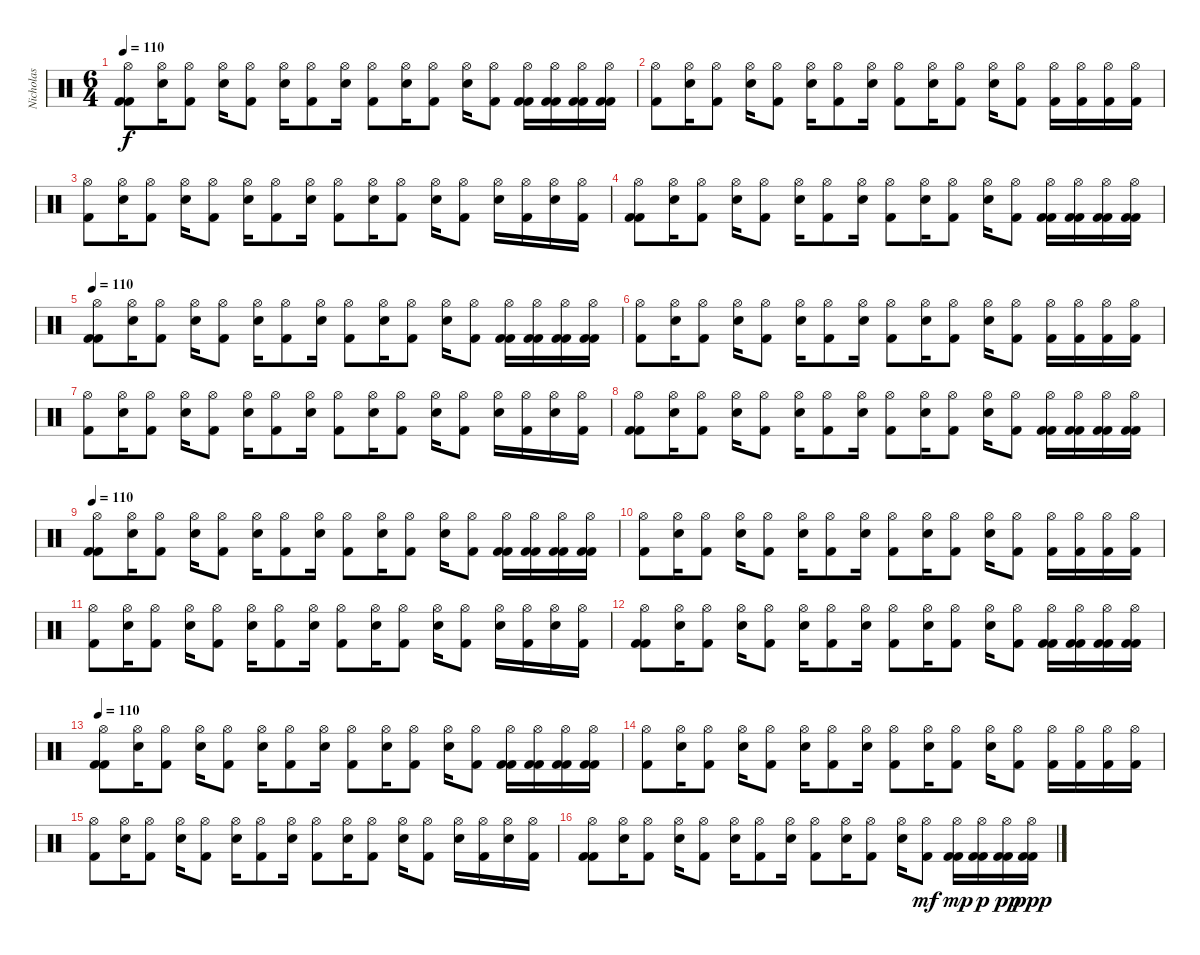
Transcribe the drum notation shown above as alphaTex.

\track ("Nicholas" "Nicholas") {instrument percussion}
\staff {score}
\articulation defaults
\ts (6 4)
\tempo 110
\clef neutral
\ks c
("Hi-Hat (open)" "Kick (hit) 2" "Kick (hit) 2").8{dy f} ("Hi-Hat (open)" "Snare (hit) 2").16 ("Hi-Hat (open)" "Kick (hit) 2").8 ("Hi-Hat (open)" "Snare (hit) 2").16 ("Hi-Hat (open)" "Kick (hit) 2").8 ("Hi-Hat (open)" "Snare (hit) 2").16 ("Hi-Hat (open)" "Kick (hit) 2").8 ("Hi-Hat (open)" "Snare (hit) 2").16 ("Hi-Hat (open)" "Kick (hit) 2").8 ("Hi-Hat (open)" "Snare (hit) 2").16 ("Hi-Hat (open)" "Kick (hit) 2").8 ("Hi-Hat (open)" "Snare (hit) 2").16 ("Hi-Hat (open)" "Kick (hit) 2").8 ("Hi-Hat (open)" "Kick (hit) 2" "Kick (hit) 2").16 ("Hi-Hat (open)" "Kick (hit) 2" "Kick (hit) 2").16 ("Hi-Hat (open)" "Kick (hit) 2" "Kick (hit) 2").16 ("Hi-Hat (open)" "Kick (hit) 2" "Kick (hit) 2").16 |
("Hi-Hat (open)" "Kick (hit) 2").8 ("Hi-Hat (open)" "Snare (hit) 2").16 ("Hi-Hat (open)" "Kick (hit) 2").8 ("Hi-Hat (open)" "Snare (hit) 2").16 ("Hi-Hat (open)" "Kick (hit) 2").8 ("Hi-Hat (open)" "Snare (hit) 2").16 ("Hi-Hat (open)" "Kick (hit) 2").8 ("Hi-Hat (open)" "Snare (hit) 2").16 ("Hi-Hat (open)" "Kick (hit) 2").8 ("Hi-Hat (open)" "Snare (hit) 2").16 ("Hi-Hat (open)" "Kick (hit) 2").8 ("Hi-Hat (open)" "Snare (hit) 2").16 ("Hi-Hat (open)" "Kick (hit) 2").8 ("Hi-Hat (open)" "Kick (hit) 2").16 ("Hi-Hat (open)" "Kick (hit) 2").16 ("Hi-Hat (open)" "Kick (hit) 2").16 ("Hi-Hat (open)" "Kick (hit) 2").16 |
("Hi-Hat (open)" "Kick (hit) 2").8 ("Hi-Hat (open)" "Snare (hit) 2").16 ("Hi-Hat (open)" "Kick (hit) 2").8 ("Hi-Hat (open)" "Snare (hit) 2").16 ("Hi-Hat (open)" "Kick (hit) 2").8 ("Hi-Hat (open)" "Snare (hit) 2").16 ("Hi-Hat (open)" "Kick (hit) 2").8 ("Hi-Hat (open)" "Snare (hit) 2").16 ("Hi-Hat (open)" "Kick (hit) 2").8 ("Hi-Hat (open)" "Snare (hit) 2").16 ("Hi-Hat (open)" "Kick (hit) 2").8 ("Hi-Hat (open)" "Snare (hit) 2").16 ("Hi-Hat (open)" "Kick (hit) 2").8 ("Hi-Hat (open)" "Snare (hit) 2").16 ("Hi-Hat (open)" "Kick (hit) 2").16 ("Hi-Hat (open)" "Snare (hit) 2").16 ("Hi-Hat (open)" "Kick (hit) 2").16 |
("Hi-Hat (open)" "Kick (hit) 2" "Kick (hit) 2").8 ("Hi-Hat (open)" "Snare (hit) 2").16 ("Hi-Hat (open)" "Kick (hit) 2").8 ("Hi-Hat (open)" "Snare (hit) 2").16 ("Hi-Hat (open)" "Kick (hit) 2").8 ("Hi-Hat (open)" "Snare (hit) 2").16 ("Hi-Hat (open)" "Kick (hit) 2").8 ("Hi-Hat (open)" "Snare (hit) 2").16 ("Hi-Hat (open)" "Kick (hit) 2").8 ("Hi-Hat (open)" "Snare (hit) 2").16 ("Hi-Hat (open)" "Kick (hit) 2").8 ("Hi-Hat (open)" "Snare (hit) 2").16 ("Hi-Hat (open)" "Kick (hit) 2").8 ("Hi-Hat (open)" "Kick (hit) 2" "Kick (hit) 2").16 ("Hi-Hat (open)" "Kick (hit) 2" "Kick (hit) 2").16 ("Hi-Hat (open)" "Kick (hit) 2" "Kick (hit) 2").16 ("Hi-Hat (open)" "Kick (hit) 2" "Kick (hit) 2").16 |
\tempo 110
("Hi-Hat (open)" "Kick (hit) 2" "Kick (hit) 2").8 ("Hi-Hat (open)" "Snare (hit) 2").16 ("Hi-Hat (open)" "Kick (hit) 2").8 ("Hi-Hat (open)" "Snare (hit) 2").16 ("Hi-Hat (open)" "Kick (hit) 2").8 ("Hi-Hat (open)" "Snare (hit) 2").16 ("Hi-Hat (open)" "Kick (hit) 2").8 ("Hi-Hat (open)" "Snare (hit) 2").16 ("Hi-Hat (open)" "Kick (hit) 2").8 ("Hi-Hat (open)" "Snare (hit) 2").16 ("Hi-Hat (open)" "Kick (hit) 2").8 ("Hi-Hat (open)" "Snare (hit) 2").16 ("Hi-Hat (open)" "Kick (hit) 2").8 ("Hi-Hat (open)" "Kick (hit) 2" "Kick (hit) 2").16 ("Hi-Hat (open)" "Kick (hit) 2" "Kick (hit) 2").16 ("Hi-Hat (open)" "Kick (hit) 2" "Kick (hit) 2").16 ("Hi-Hat (open)" "Kick (hit) 2" "Kick (hit) 2").16 |
("Hi-Hat (open)" "Kick (hit) 2").8 ("Hi-Hat (open)" "Snare (hit) 2").16 ("Hi-Hat (open)" "Kick (hit) 2").8 ("Hi-Hat (open)" "Snare (hit) 2").16 ("Hi-Hat (open)" "Kick (hit) 2").8 ("Hi-Hat (open)" "Snare (hit) 2").16 ("Hi-Hat (open)" "Kick (hit) 2").8 ("Hi-Hat (open)" "Snare (hit) 2").16 ("Hi-Hat (open)" "Kick (hit) 2").8 ("Hi-Hat (open)" "Snare (hit) 2").16 ("Hi-Hat (open)" "Kick (hit) 2").8 ("Hi-Hat (open)" "Snare (hit) 2").16 ("Hi-Hat (open)" "Kick (hit) 2").8 ("Hi-Hat (open)" "Kick (hit) 2").16 ("Hi-Hat (open)" "Kick (hit) 2").16 ("Hi-Hat (open)" "Kick (hit) 2").16 ("Hi-Hat (open)" "Kick (hit) 2").16 |
("Hi-Hat (open)" "Kick (hit) 2").8 ("Hi-Hat (open)" "Snare (hit) 2").16 ("Hi-Hat (open)" "Kick (hit) 2").8 ("Hi-Hat (open)" "Snare (hit) 2").16 ("Hi-Hat (open)" "Kick (hit) 2").8 ("Hi-Hat (open)" "Snare (hit) 2").16 ("Hi-Hat (open)" "Kick (hit) 2").8 ("Hi-Hat (open)" "Snare (hit) 2").16 ("Hi-Hat (open)" "Kick (hit) 2").8 ("Hi-Hat (open)" "Snare (hit) 2").16 ("Hi-Hat (open)" "Kick (hit) 2").8 ("Hi-Hat (open)" "Snare (hit) 2").16 ("Hi-Hat (open)" "Kick (hit) 2").8 ("Hi-Hat (open)" "Snare (hit) 2").16 ("Hi-Hat (open)" "Kick (hit) 2").16 ("Hi-Hat (open)" "Snare (hit) 2").16 ("Hi-Hat (open)" "Kick (hit) 2").16 |
("Hi-Hat (open)" "Kick (hit) 2" "Kick (hit) 2").8 ("Hi-Hat (open)" "Snare (hit) 2").16 ("Hi-Hat (open)" "Kick (hit) 2").8 ("Hi-Hat (open)" "Snare (hit) 2").16 ("Hi-Hat (open)" "Kick (hit) 2").8 ("Hi-Hat (open)" "Snare (hit) 2").16 ("Hi-Hat (open)" "Kick (hit) 2").8 ("Hi-Hat (open)" "Snare (hit) 2").16 ("Hi-Hat (open)" "Kick (hit) 2").8 ("Hi-Hat (open)" "Snare (hit) 2").16 ("Hi-Hat (open)" "Kick (hit) 2").8 ("Hi-Hat (open)" "Snare (hit) 2").16 ("Hi-Hat (open)" "Kick (hit) 2").8 ("Hi-Hat (open)" "Kick (hit) 2" "Kick (hit) 2").16 ("Hi-Hat (open)" "Kick (hit) 2" "Kick (hit) 2").16 ("Hi-Hat (open)" "Kick (hit) 2" "Kick (hit) 2").16 ("Hi-Hat (open)" "Kick (hit) 2" "Kick (hit) 2").16 |
\tempo 110
("Hi-Hat (open)" "Kick (hit) 2" "Kick (hit) 2").8 ("Hi-Hat (open)" "Snare (hit) 2").16 ("Hi-Hat (open)" "Kick (hit) 2").8 ("Hi-Hat (open)" "Snare (hit) 2").16 ("Hi-Hat (open)" "Kick (hit) 2").8 ("Hi-Hat (open)" "Snare (hit) 2").16 ("Hi-Hat (open)" "Kick (hit) 2").8 ("Hi-Hat (open)" "Snare (hit) 2").16 ("Hi-Hat (open)" "Kick (hit) 2").8 ("Hi-Hat (open)" "Snare (hit) 2").16 ("Hi-Hat (open)" "Kick (hit) 2").8 ("Hi-Hat (open)" "Snare (hit) 2").16 ("Hi-Hat (open)" "Kick (hit) 2").8 ("Hi-Hat (open)" "Kick (hit) 2" "Kick (hit) 2").16 ("Hi-Hat (open)" "Kick (hit) 2" "Kick (hit) 2").16 ("Hi-Hat (open)" "Kick (hit) 2" "Kick (hit) 2").16 ("Hi-Hat (open)" "Kick (hit) 2" "Kick (hit) 2").16 |
("Hi-Hat (open)" "Kick (hit) 2").8 ("Hi-Hat (open)" "Snare (hit) 2").16 ("Hi-Hat (open)" "Kick (hit) 2").8 ("Hi-Hat (open)" "Snare (hit) 2").16 ("Hi-Hat (open)" "Kick (hit) 2").8 ("Hi-Hat (open)" "Snare (hit) 2").16 ("Hi-Hat (open)" "Kick (hit) 2").8 ("Hi-Hat (open)" "Snare (hit) 2").16 ("Hi-Hat (open)" "Kick (hit) 2").8 ("Hi-Hat (open)" "Snare (hit) 2").16 ("Hi-Hat (open)" "Kick (hit) 2").8 ("Hi-Hat (open)" "Snare (hit) 2").16 ("Hi-Hat (open)" "Kick (hit) 2").8 ("Hi-Hat (open)" "Kick (hit) 2").16 ("Hi-Hat (open)" "Kick (hit) 2").16 ("Hi-Hat (open)" "Kick (hit) 2").16 ("Hi-Hat (open)" "Kick (hit) 2").16 |
("Hi-Hat (open)" "Kick (hit) 2").8 ("Hi-Hat (open)" "Snare (hit) 2").16 ("Hi-Hat (open)" "Kick (hit) 2").8 ("Hi-Hat (open)" "Snare (hit) 2").16 ("Hi-Hat (open)" "Kick (hit) 2").8 ("Hi-Hat (open)" "Snare (hit) 2").16 ("Hi-Hat (open)" "Kick (hit) 2").8 ("Hi-Hat (open)" "Snare (hit) 2").16 ("Hi-Hat (open)" "Kick (hit) 2").8 ("Hi-Hat (open)" "Snare (hit) 2").16 ("Hi-Hat (open)" "Kick (hit) 2").8 ("Hi-Hat (open)" "Snare (hit) 2").16 ("Hi-Hat (open)" "Kick (hit) 2").8 ("Hi-Hat (open)" "Snare (hit) 2").16 ("Hi-Hat (open)" "Kick (hit) 2").16 ("Hi-Hat (open)" "Snare (hit) 2").16 ("Hi-Hat (open)" "Kick (hit) 2").16 |
("Hi-Hat (open)" "Kick (hit) 2" "Kick (hit) 2").8 ("Hi-Hat (open)" "Snare (hit) 2").16 ("Hi-Hat (open)" "Kick (hit) 2").8 ("Hi-Hat (open)" "Snare (hit) 2").16 ("Hi-Hat (open)" "Kick (hit) 2").8 ("Hi-Hat (open)" "Snare (hit) 2").16 ("Hi-Hat (open)" "Kick (hit) 2").8 ("Hi-Hat (open)" "Snare (hit) 2").16 ("Hi-Hat (open)" "Kick (hit) 2").8 ("Hi-Hat (open)" "Snare (hit) 2").16 ("Hi-Hat (open)" "Kick (hit) 2").8 ("Hi-Hat (open)" "Snare (hit) 2").16 ("Hi-Hat (open)" "Kick (hit) 2").8 ("Hi-Hat (open)" "Kick (hit) 2" "Kick (hit) 2").16 ("Hi-Hat (open)" "Kick (hit) 2" "Kick (hit) 2").16 ("Hi-Hat (open)" "Kick (hit) 2" "Kick (hit) 2").16 ("Hi-Hat (open)" "Kick (hit) 2" "Kick (hit) 2").16 |
\tempo 110
("Hi-Hat (open)" "Kick (hit) 2" "Kick (hit) 2").8 ("Hi-Hat (open)" "Snare (hit) 2").16 ("Hi-Hat (open)" "Kick (hit) 2").8 ("Hi-Hat (open)" "Snare (hit) 2").16 ("Hi-Hat (open)" "Kick (hit) 2").8 ("Hi-Hat (open)" "Snare (hit) 2").16 ("Hi-Hat (open)" "Kick (hit) 2").8 ("Hi-Hat (open)" "Snare (hit) 2").16 ("Hi-Hat (open)" "Kick (hit) 2").8 ("Hi-Hat (open)" "Snare (hit) 2").16 ("Hi-Hat (open)" "Kick (hit) 2").8 ("Hi-Hat (open)" "Snare (hit) 2").16 ("Hi-Hat (open)" "Kick (hit) 2").8 ("Hi-Hat (open)" "Kick (hit) 2" "Kick (hit) 2").16 ("Hi-Hat (open)" "Kick (hit) 2" "Kick (hit) 2").16 ("Hi-Hat (open)" "Kick (hit) 2" "Kick (hit) 2").16 ("Hi-Hat (open)" "Kick (hit) 2" "Kick (hit) 2").16 |
("Hi-Hat (open)" "Kick (hit) 2").8 ("Hi-Hat (open)" "Snare (hit) 2").16 ("Hi-Hat (open)" "Kick (hit) 2").8 ("Hi-Hat (open)" "Snare (hit) 2").16 ("Hi-Hat (open)" "Kick (hit) 2").8 ("Hi-Hat (open)" "Snare (hit) 2").16 ("Hi-Hat (open)" "Kick (hit) 2").8 ("Hi-Hat (open)" "Snare (hit) 2").16 ("Hi-Hat (open)" "Kick (hit) 2").8 ("Hi-Hat (open)" "Snare (hit) 2").16 ("Hi-Hat (open)" "Kick (hit) 2").8 ("Hi-Hat (open)" "Snare (hit) 2").16 ("Hi-Hat (open)" "Kick (hit) 2").8 ("Hi-Hat (open)" "Kick (hit) 2").16 ("Hi-Hat (open)" "Kick (hit) 2").16 ("Hi-Hat (open)" "Kick (hit) 2").16 ("Hi-Hat (open)" "Kick (hit) 2").16 |
("Hi-Hat (open)" "Kick (hit) 2").8 ("Hi-Hat (open)" "Snare (hit) 2").16 ("Hi-Hat (open)" "Kick (hit) 2").8 ("Hi-Hat (open)" "Snare (hit) 2").16 ("Hi-Hat (open)" "Kick (hit) 2").8 ("Hi-Hat (open)" "Snare (hit) 2").16 ("Hi-Hat (open)" "Kick (hit) 2").8 ("Hi-Hat (open)" "Snare (hit) 2").16 ("Hi-Hat (open)" "Kick (hit) 2").8 ("Hi-Hat (open)" "Snare (hit) 2").16 ("Hi-Hat (open)" "Kick (hit) 2").8 ("Hi-Hat (open)" "Snare (hit) 2").16 ("Hi-Hat (open)" "Kick (hit) 2").8 ("Hi-Hat (open)" "Snare (hit) 2").16 ("Hi-Hat (open)" "Kick (hit) 2").16 ("Hi-Hat (open)" "Snare (hit) 2").16 ("Hi-Hat (open)" "Kick (hit) 2").16 |
("Hi-Hat (open)" "Kick (hit) 2" "Kick (hit) 2").8 ("Hi-Hat (open)" "Snare (hit) 2").16 ("Hi-Hat (open)" "Kick (hit) 2").8 ("Hi-Hat (open)" "Snare (hit) 2").16 ("Hi-Hat (open)" "Kick (hit) 2").8 ("Hi-Hat (open)" "Snare (hit) 2").16 ("Hi-Hat (open)" "Kick (hit) 2").8 ("Hi-Hat (open)" "Snare (hit) 2").16 ("Hi-Hat (open)" "Kick (hit) 2").8 ("Hi-Hat (open)" "Snare (hit) 2").16 ("Hi-Hat (open)" "Kick (hit) 2").8 ("Hi-Hat (open)" "Snare (hit) 2").16 ("Hi-Hat (open)" "Kick (hit) 2").8{dy mf} ("Hi-Hat (open)" "Kick (hit) 2" "Kick (hit) 2").16{dy mp} ("Hi-Hat (open)" "Kick (hit) 2" "Kick (hit) 2").16{dy p} ("Hi-Hat (open)" "Kick (hit) 2" "Kick (hit) 2").16{dy pp} ("Hi-Hat (open)" "Kick (hit) 2" "Kick (hit) 2").16{dy ppp}
